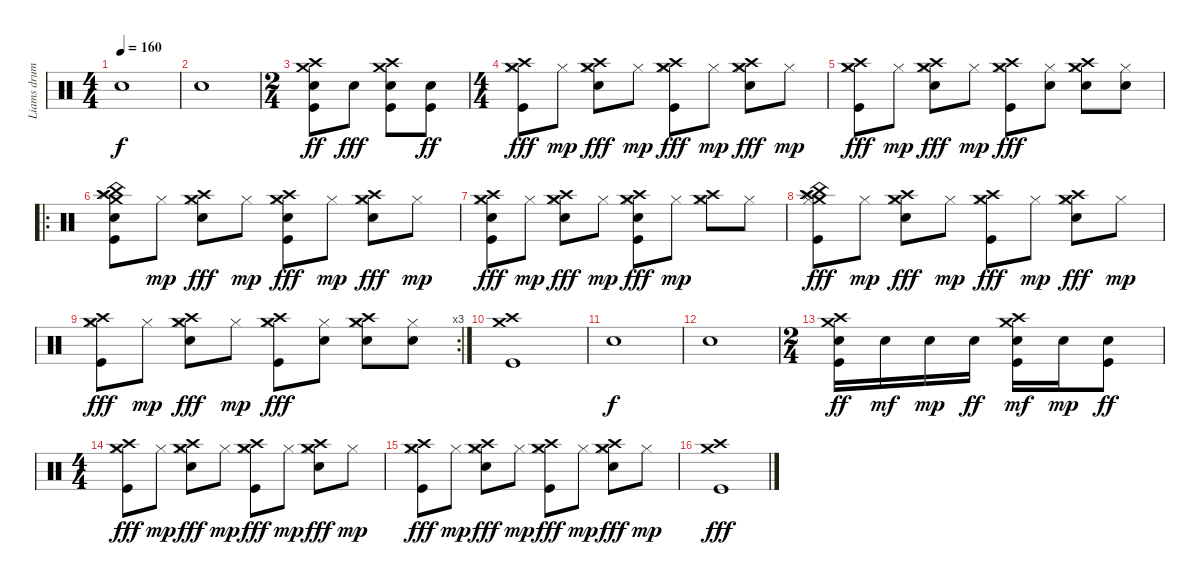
\track ("Liams drums" "Liams drum") {instrument percussion}
\staff {score}
\articulation defaults
\ts (4 4)
\tempo 160
\clef neutral
\ks c "Snare (hit)"{x}.1{dy f}
|
"Snare (hit)"{x}.1 |
\ts (2 4)
("Crash high (hit)" "Crash medium (hit)" "Electric Snare (hit)" "Kick (hit)").8{dy ff} "Electric Snare (hit)".8{dy fff} ("Crash high (hit)" "Crash medium (hit)" "Electric Snare (hit)" "Kick (hit)").8 ("Electric Snare (hit)" "Kick (hit)").8{dy ff} |
\ts (4 4)
("Crash high (hit)" "Crash medium (hit)" "Hi-Hat (closed)" "Kick (hit)").8{dy fff} "Hi-Hat (closed)".8{dy mp} ("Crash high (hit)" "Crash medium (hit)" "Hi-Hat (closed)" "Electric Snare (hit)").8{dy fff} "Hi-Hat (closed)".8{dy mp} ("Crash high (hit)" "Crash medium (hit)" "Hi-Hat (closed)" "Kick (hit)").8{dy fff} "Hi-Hat (closed)".8{dy mp} ("Crash high (hit)" "Crash medium (hit)" "Hi-Hat (closed)" "Electric Snare (hit)").8{dy fff} "Hi-Hat (closed)".8{dy mp} |
("Crash high (hit)" "Crash medium (hit)" "Hi-Hat (closed)" "Kick (hit)").8{dy fff} "Hi-Hat (closed)".8{dy mp} ("Crash high (hit)" "Crash medium (hit)" "Hi-Hat (closed)" "Electric Snare (hit)").8{dy fff} "Hi-Hat (closed)".8{dy mp} ("Crash high (hit)" "Crash medium (hit)" "Hi-Hat (closed)" "Kick (hit)").8{dy fff} ("Hi-Hat (closed)" "Electric Snare (hit)").8 ("Crash high (hit)" "Crash medium (hit)" "Hi-Hat (closed)" "Electric Snare (hit)").8 ("Hi-Hat (closed)" "Electric Snare (hit)").8 |
\ro
("Crash high (hit)" "Crash medium (hit)" "Electric Snare (hit)" "Splash (hit)" "China (hit)" "Kick (hit)").8 "Hi-Hat (closed)".8{dy mp} ("Crash high (hit)" "Crash medium (hit)" "Hi-Hat (closed)" "Electric Snare (hit)").8{dy fff} "Hi-Hat (closed)".8{dy mp} ("Crash high (hit)" "Crash medium (hit)" "Hi-Hat (closed)" "Electric Snare (hit)" "Kick (hit)").8{dy fff} "Hi-Hat (closed)".8{dy mp} ("Crash high (hit)" "Crash medium (hit)" "Hi-Hat (closed)" "Electric Snare (hit)").8{dy fff} "Hi-Hat (closed)".8{dy mp} |
("Crash high (hit)" "Crash medium (hit)" "Hi-Hat (closed)" "Electric Snare (hit)" "Kick (hit)").8{dy fff} "Hi-Hat (closed)".8{dy mp} ("Crash high (hit)" "Crash medium (hit)" "Hi-Hat (closed)" "Electric Snare (hit)").8{dy fff} "Hi-Hat (closed)".8{dy mp} ("Crash high (hit)" "Crash medium (hit)" "Hi-Hat (closed)" "Electric Snare (hit)" "Kick (hit)").8{dy fff} "Hi-Hat (closed)".8{dy mp} ("Crash high (hit)" "Crash medium (hit)" "Hi-Hat (closed)").8 "Hi-Hat (closed)".8 |
("Crash high (hit)" "Crash medium (hit)" "Hi-Hat (closed)" "Splash (hit)" "China (hit)" "Kick (hit)").8{dy fff} "Hi-Hat (closed)".8{dy mp} ("Crash high (hit)" "Crash medium (hit)" "Hi-Hat (closed)" "Electric Snare (hit)").8{dy fff} "Hi-Hat (closed)".8{dy mp} ("Crash high (hit)" "Crash medium (hit)" "Hi-Hat (closed)" "Kick (hit)").8{dy fff} "Hi-Hat (closed)".8{dy mp} ("Crash high (hit)" "Crash medium (hit)" "Hi-Hat (closed)" "Electric Snare (hit)").8{dy fff} "Hi-Hat (closed)".8{dy mp} |
\rc 3
("Crash high (hit)" "Crash medium (hit)" "Hi-Hat (closed)" "Kick (hit)").8{dy fff} "Hi-Hat (closed)".8{dy mp} ("Crash high (hit)" "Crash medium (hit)" "Hi-Hat (closed)" "Electric Snare (hit)").8{dy fff} "Hi-Hat (closed)".8{dy mp} ("Crash high (hit)" "Crash medium (hit)" "Hi-Hat (closed)" "Kick (hit)").8{dy fff} ("Hi-Hat (closed)" "Electric Snare (hit)").8 ("Crash high (hit)" "Crash medium (hit)" "Hi-Hat (closed)" "Electric Snare (hit)").8 ("Hi-Hat (closed)" "Electric Snare (hit)").8 |
("Crash high (hit)" "Crash medium (hit)" "Kick (hit)").1 |
"Snare (hit)"{x}.1{dy f} |
"Snare (hit)"{x}.1 |
\ts (2 4)
("Crash high (hit)" "Crash medium (hit)" "Electric Snare (hit)" "Kick (hit)").16{dy ff} "Electric Snare (hit)".16{dy mf} "Electric Snare (hit)".16{dy mp} "Electric Snare (hit)".16{dy ff} ("Crash high (hit)" "Crash medium (hit)" "Electric Snare (hit)" "Kick (hit)").16{dy mf} "Electric Snare (hit)".16{dy mp} ("Electric Snare (hit)" "Kick (hit)").8{dy ff} |
\ts (4 4)
("Crash high (hit)" "Crash medium (hit)" "Hi-Hat (closed)" "Kick (hit)").8{dy fff} "Hi-Hat (closed)".8{dy mp} ("Crash high (hit)" "Crash medium (hit)" "Hi-Hat (closed)" "Electric Snare (hit)").8{dy fff} "Hi-Hat (closed)".8{dy mp} ("Crash high (hit)" "Crash medium (hit)" "Hi-Hat (closed)" "Kick (hit)").8{dy fff} "Hi-Hat (closed)".8{dy mp} ("Crash high (hit)" "Crash medium (hit)" "Hi-Hat (closed)" "Electric Snare (hit)").8{dy fff} "Hi-Hat (closed)".8{dy mp} |
("Crash high (hit)" "Crash medium (hit)" "Hi-Hat (closed)" "Kick (hit)").8{dy fff} "Hi-Hat (closed)".8{dy mp} ("Crash high (hit)" "Crash medium (hit)" "Hi-Hat (closed)" "Electric Snare (hit)").8{dy fff} "Hi-Hat (closed)".8{dy mp} ("Crash high (hit)" "Crash medium (hit)" "Hi-Hat (closed)" "Kick (hit)").8{dy fff} "Hi-Hat (closed)".8{dy mp} ("Crash high (hit)" "Crash medium (hit)" "Hi-Hat (closed)" "Electric Snare (hit)").8{dy fff} "Hi-Hat (closed)".8{dy mp} |
("Crash high (hit)" "Crash medium (hit)" "Kick (hit)").1{dy fff}
